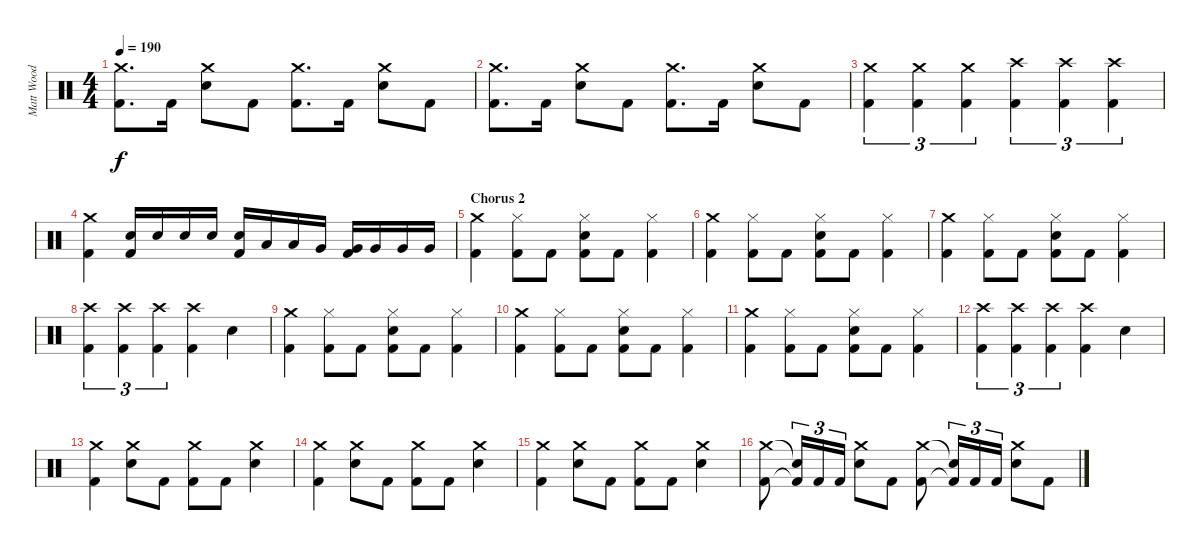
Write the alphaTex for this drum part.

\track ("Matt Wood" "Matt Wood") {instrument percussion}
\staff {score}
\articulation defaults
\ts (4 4)
\tempo 190
\clef neutral
\ks c
("Crash medium (hit)" "Kick (hit) 2").8{d dy f} "Kick (hit) 2".16 ("Crash medium (hit)" "Snare (hit) 2").8 "Kick (hit) 2".8 ("Crash medium (hit)" "Kick (hit) 2").8{d} "Kick (hit) 2".16 ("Crash medium (hit)" "Snare (hit) 2").8 "Kick (hit) 2".8 |
("Crash medium (hit)" "Kick (hit) 2").8{d} "Kick (hit) 2".16 ("Crash medium (hit)" "Snare (hit) 2").8 "Kick (hit) 2".8 ("Crash medium (hit)" "Kick (hit) 2").8{d} "Kick (hit) 2".16 ("Crash medium (hit)" "Snare (hit) 2").8 "Kick (hit) 2".8 |
("Crash medium (hit)" "Kick (hit) 2").4{tu (3 2)} ("Crash medium (hit)" "Kick (hit) 2").4{tu (3 2)} ("Crash medium (hit)" "Kick (hit) 2").4{tu (3 2)} ("Crash high (hit)" "Kick (hit) 2").4{tu (3 2)} ("Crash high (hit)" "Kick (hit) 2").4{tu (3 2)} ("Crash high (hit)" "Kick (hit) 2").4{tu (3 2)} |
("Crash medium (hit)" "Kick (hit) 2").4 ("Snare (hit) 2" "Kick (hit) 2").16 "Snare (hit) 2".16 "Snare (hit) 2".16 "Snare (hit) 2".16 ("Snare (hit) 2" "Kick (hit) 2").16 "Low Tom (hit)".16 "Low Tom (hit)".16 "Very Low Tom (hit)".16 ("Very Low Tom (hit)" "Kick (hit) 2").16 "Very Low Tom (hit)".16 "Very Low Tom (hit)".16 "Very Low Tom (hit)".16 |
\section ("" "Chorus 2")
("Crash medium (hit)" "Kick (hit) 2").4 ("Hi-Hat (closed)" "Kick (hit) 2").8 "Kick (hit) 2".8 ("Hi-Hat (closed)" "Snare (hit) 2" "Kick (hit) 2").8 "Kick (hit) 2".8 ("Hi-Hat (closed)" "Kick (hit) 2").4 |
("Crash medium (hit)" "Kick (hit) 2").4 ("Hi-Hat (closed)" "Kick (hit) 2").8 "Kick (hit) 2".8 ("Hi-Hat (closed)" "Snare (hit) 2" "Kick (hit) 2").8 "Kick (hit) 2".8 ("Hi-Hat (closed)" "Kick (hit) 2").4 |
("Crash medium (hit)" "Kick (hit) 2").4 ("Hi-Hat (closed)" "Kick (hit) 2").8 "Kick (hit) 2".8 ("Hi-Hat (closed)" "Snare (hit) 2" "Kick (hit) 2").8 "Kick (hit) 2".8 ("Hi-Hat (closed)" "Kick (hit) 2").4 |
("Crash high (hit)" "Kick (hit) 2").4{tu (3 2)} ("Crash high (hit)" "Kick (hit) 2").4{tu (3 2)} ("Crash high (hit)" "Kick (hit) 2").4{tu (3 2)} ("Crash high (hit)" "Kick (hit) 2").4 "Snare (hit) 2".4 |
("Crash medium (hit)" "Kick (hit) 2").4 ("Hi-Hat (closed)" "Kick (hit) 2").8 "Kick (hit) 2".8 ("Hi-Hat (closed)" "Snare (hit) 2" "Kick (hit) 2").8 "Kick (hit) 2".8 ("Hi-Hat (closed)" "Kick (hit) 2").4 |
("Crash medium (hit)" "Kick (hit) 2").4 ("Hi-Hat (closed)" "Kick (hit) 2").8 "Kick (hit) 2".8 ("Hi-Hat (closed)" "Snare (hit) 2" "Kick (hit) 2").8 "Kick (hit) 2".8 ("Hi-Hat (closed)" "Kick (hit) 2").4 |
("Crash medium (hit)" "Kick (hit) 2").4 ("Hi-Hat (closed)" "Kick (hit) 2").8 "Kick (hit) 2".8 ("Hi-Hat (closed)" "Snare (hit) 2" "Kick (hit) 2").8 "Kick (hit) 2".8 ("Hi-Hat (closed)" "Kick (hit) 2").4 |
("Crash high (hit)" "Kick (hit) 2").4{tu (3 2)} ("Crash high (hit)" "Kick (hit) 2").4{tu (3 2)} ("Crash high (hit)" "Kick (hit) 2").4{tu (3 2)} ("Crash high (hit)" "Kick (hit) 2").4 "Snare (hit) 2".4 |
("Crash medium (hit)" "Kick (hit) 2").4 ("Crash medium (hit)" "Snare (hit) 2").8 "Kick (hit) 2".8 ("Crash medium (hit)" "Kick (hit) 2").8 "Kick (hit) 2".8 ("Crash medium (hit)" "Snare (hit) 2").4 |
("Crash medium (hit)" "Kick (hit) 2").4 ("Crash medium (hit)" "Snare (hit) 2").8 "Kick (hit) 2".8 ("Crash medium (hit)" "Kick (hit) 2").8 "Kick (hit) 2".8 ("Crash medium (hit)" "Snare (hit) 2").4 |
("Crash medium (hit)" "Kick (hit) 2").4 ("Crash medium (hit)" "Snare (hit) 2").8 "Kick (hit) 2".8 ("Crash medium (hit)" "Kick (hit) 2").8 "Kick (hit) 2".8 ("Crash medium (hit)" "Snare (hit) 2").4 |
("Crash medium (hit)" "Kick (hit) 2").8 ("Snare (hit)"{t} "Kick (hit) 2"{t}).16{tu (3 2)} "Kick (hit) 2".16{tu (3 2)} "Kick (hit) 2".16{tu (3 2)} ("Crash medium (hit)" "Snare (hit) 2").8 "Kick (hit) 2".8 ("Crash medium (hit)" "Kick (hit) 2").8 ("Snare (hit)"{t} "Kick (hit) 2"{t}).16{tu (3 2)} "Kick (hit) 2".16{tu (3 2)} "Kick (hit) 2".16{tu (3 2)} ("Crash medium (hit)" "Snare (hit) 2").8 "Kick (hit) 2".8
